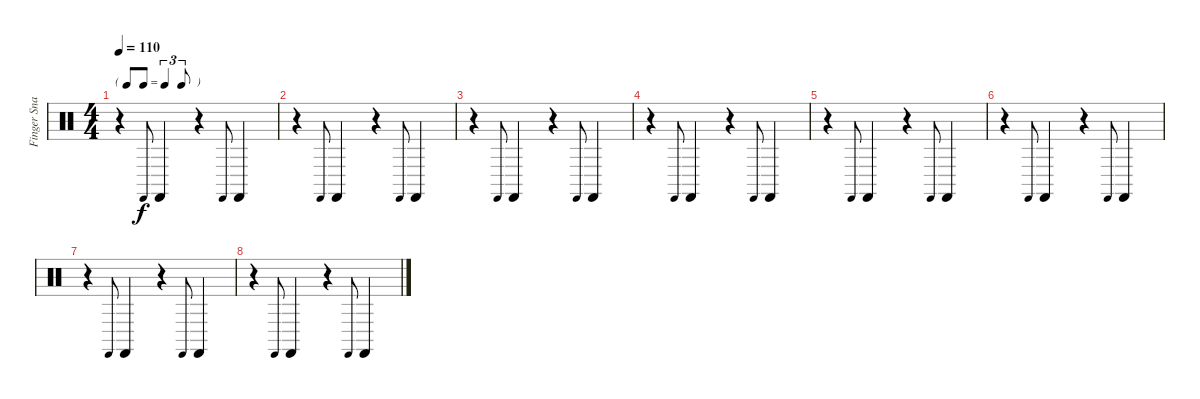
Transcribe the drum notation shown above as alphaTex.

\track ("Finger Snaps" "Finger Sna") {instrument percussion}
\staff {score}
\articulation defaults
\ts (4 4)
\tf triplet8th
\tempo 110
\clef neutral
\ks c
r.4{dy f} "Castanets (hit)".8{gr onbeat} "Castanets (hit)".4 r.4 "Castanets (hit)".8{gr onbeat} "Castanets (hit)".4 |
r.4 "Castanets (hit)".8{gr onbeat} "Castanets (hit)".4 r.4 "Castanets (hit)".8{gr onbeat} "Castanets (hit)".4 |
r.4 "Castanets (hit)".8{gr onbeat} "Castanets (hit)".4 r.4 "Castanets (hit)".8{gr onbeat} "Castanets (hit)".4 |
r.4 "Castanets (hit)".8{gr onbeat} "Castanets (hit)".4 r.4 "Castanets (hit)".8{gr onbeat} "Castanets (hit)".4 |
r.4 "Castanets (hit)".8{gr onbeat} "Castanets (hit)".4 r.4 "Castanets (hit)".8{gr onbeat} "Castanets (hit)".4 |
r.4 "Castanets (hit)".8{gr onbeat} "Castanets (hit)".4 r.4 "Castanets (hit)".8{gr onbeat} "Castanets (hit)".4 |
r.4 "Castanets (hit)".8{gr onbeat} "Castanets (hit)".4 r.4 "Castanets (hit)".8{gr onbeat} "Castanets (hit)".4 |
r.4 "Castanets (hit)".8{gr onbeat} "Castanets (hit)".4 r.4 "Castanets (hit)".8{gr onbeat} "Castanets (hit)".4
